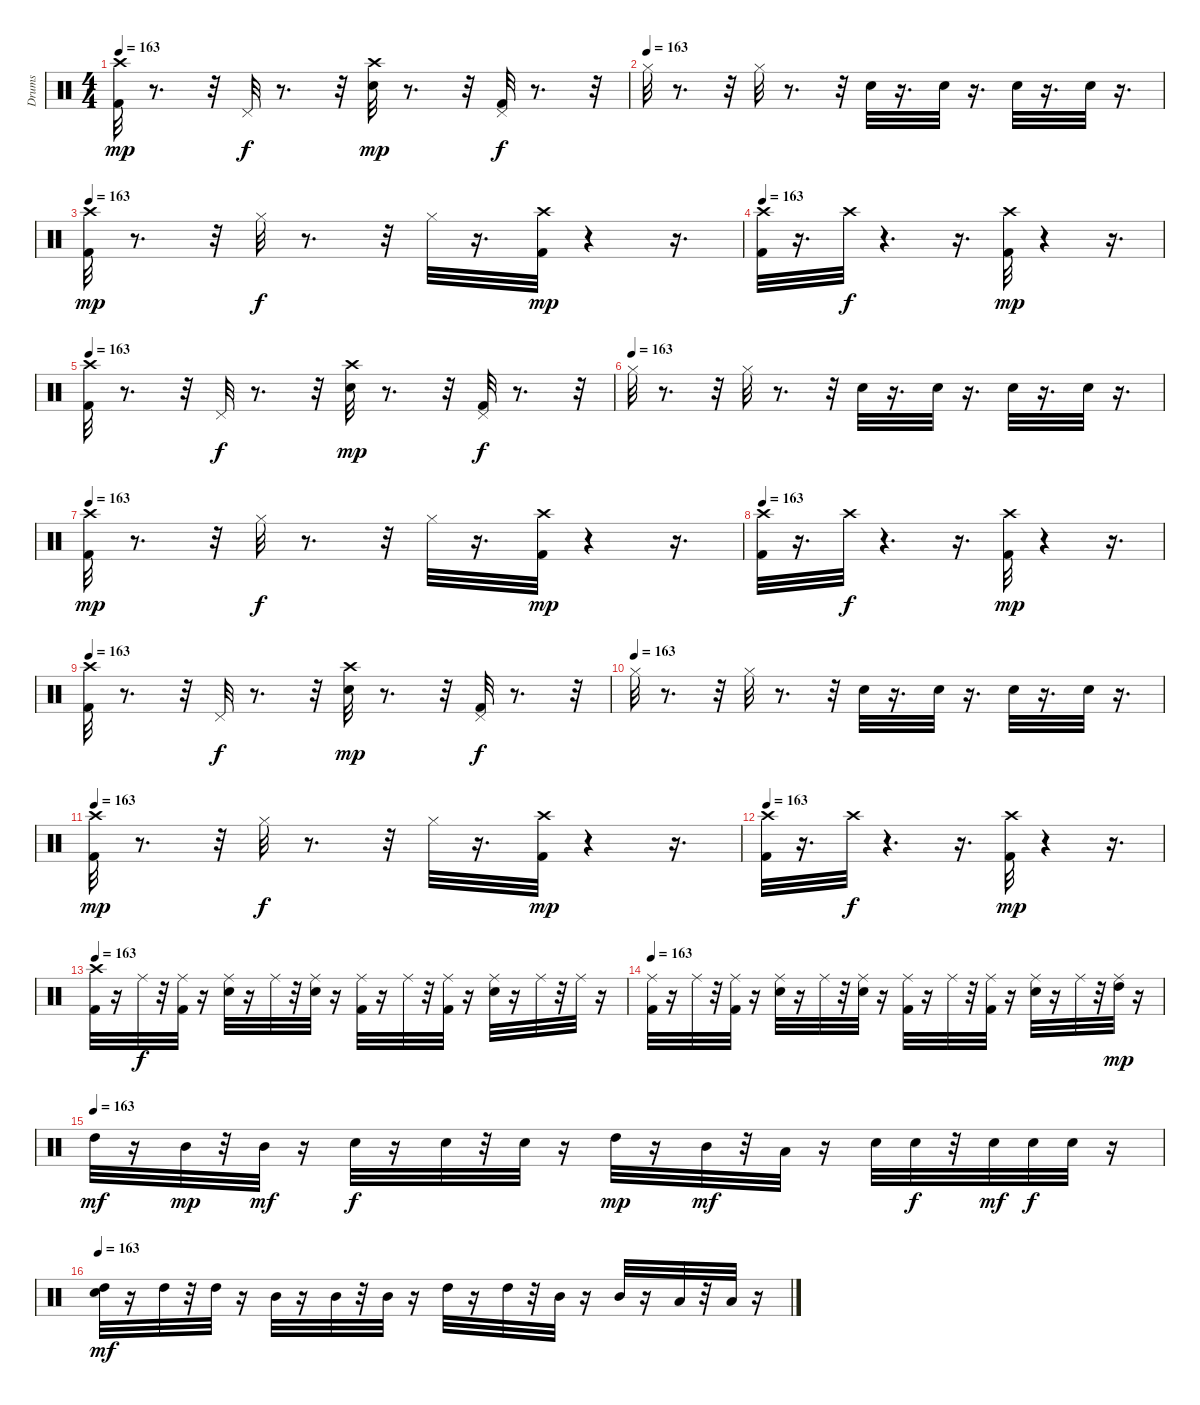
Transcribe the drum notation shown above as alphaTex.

\track ("Drums" "Drums") {instrument percussion}
\staff {score}
\articulation defaults
\ts (4 4)
\tempo 163
\clef neutral
\ks c
("Kick (hit) 2" "Crash high (hit)").32{dy mp} r.8{d} r.32 "Pedal Hi-Hat (hit)".32{dy f} r.8{d} r.32 ("Snare (hit) 2" "Crash high (hit)").32{dy mp} r.8{d} r.32 ("Kick (hit) 2" "Pedal Hi-Hat (hit)").32{dy f} r.8{d} r.32 |
\tempo (163)
"Hi-Hat (closed)".32 r.8{d} r.32 "Hi-Hat (closed)".32 r.8{d} r.32 "Snare (hit) 2".32 r.16{d} "Snare (hit) 2".32 r.16{d} "Snare (hit) 2".32 r.16{d} "Snare (hit) 2".32 r.16{d} |
\tempo 163
("Kick (hit) 2" "Crash high (hit)").32{dy mp} r.8{d} r.32 "Hi-Hat (closed)".32{dy f} r.8{d} r.32 "Hi-Hat (closed)".32 r.16{d} ("Kick (hit) 2" "Crash high (hit)").32{dy mp} r.4 r.16{d} |
\tempo 163
("Kick (hit) 2" "Crash high (hit)").32 r.16{d} "Crash high (hit)".32{dy f} r.4{d} r.16{d} ("Kick (hit) 2" "Crash high (hit)").32{dy mp} r.4 r.16{d} |
\tempo 163
("Kick (hit) 2" "Crash high (hit)").32 r.8{d} r.32 "Pedal Hi-Hat (hit)".32{dy f} r.8{d} r.32 ("Snare (hit) 2" "Crash high (hit)").32{dy mp} r.8{d} r.32 ("Kick (hit) 2" "Pedal Hi-Hat (hit)").32{dy f} r.8{d} r.32 |
\tempo (163)
"Hi-Hat (closed)".32 r.8{d} r.32 "Hi-Hat (closed)".32 r.8{d} r.32 "Snare (hit) 2".32 r.16{d} "Snare (hit) 2".32 r.16{d} "Snare (hit) 2".32 r.16{d} "Snare (hit) 2".32 r.16{d} |
\tempo 163
("Kick (hit) 2" "Crash high (hit)").32{dy mp} r.8{d} r.32 "Hi-Hat (closed)".32{dy f} r.8{d} r.32 "Hi-Hat (closed)".32 r.16{d} ("Kick (hit) 2" "Crash high (hit)").32{dy mp} r.4 r.16{d} |
\tempo 163
("Kick (hit) 2" "Crash high (hit)").32 r.16{d} "Crash high (hit)".32{dy f} r.4{d} r.16{d} ("Kick (hit) 2" "Crash high (hit)").32{dy mp} r.4 r.16{d} |
\tempo 163
("Kick (hit) 2" "Crash high (hit)").32 r.8{d} r.32 "Pedal Hi-Hat (hit)".32{dy f} r.8{d} r.32 ("Snare (hit) 2" "Crash high (hit)").32{dy mp} r.8{d} r.32 ("Kick (hit) 2" "Pedal Hi-Hat (hit)").32{dy f} r.8{d} r.32 |
\tempo (163)
"Hi-Hat (closed)".32 r.8{d} r.32 "Hi-Hat (closed)".32 r.8{d} r.32 "Snare (hit) 2".32 r.16{d} "Snare (hit) 2".32 r.16{d} "Snare (hit) 2".32 r.16{d} "Snare (hit) 2".32 r.16{d} |
\tempo 163
("Kick (hit) 2" "Crash high (hit)").32{dy mp} r.8{d} r.32 "Hi-Hat (closed)".32{dy f} r.8{d} r.32 "Hi-Hat (closed)".32 r.16{d} ("Kick (hit) 2" "Crash high (hit)").32{dy mp} r.4 r.16{d} |
\tempo 163
("Kick (hit) 2" "Crash high (hit)").32 r.16{d} "Crash high (hit)".32{dy f} r.4{d} r.16{d} ("Kick (hit) 2" "Crash high (hit)").32{dy mp} r.4 r.16{d} |
\tempo 163
("Kick (hit) 2" "Crash high (hit)").32 r.16 "Ride (middle)".32{dy f} r.32 ("Kick (hit) 2" "Ride (middle)").32 r.16 ("Snare (hit) 2" "Ride (middle)").32 r.16 "Ride (middle)".32 r.32 ("Snare (hit) 2" "Ride (middle)").32 r.16 ("Kick (hit) 2" "Ride (middle)").32 r.16 "Ride (middle)".32 r.32 ("Kick (hit) 2" "Ride (middle)").32 r.16 ("Snare (hit) 2" "Ride (middle)").32 r.16 "Ride (middle)".32 r.32 "Ride (middle)".32 r.16 |
\tempo 163
("Kick (hit) 2" "Ride (middle)").32 r.16 "Ride (middle)".32 r.32 ("Kick (hit) 2" "Ride (middle)").32 r.16 ("Snare (hit) 2" "Ride (middle)").32 r.16 "Ride (middle)".32 r.32 ("Snare (hit) 2" "Ride (middle)").32 r.16 ("Kick (hit) 2" "Ride (middle)").32 r.16 "Ride (middle)".32 r.32 ("Kick (hit) 2" "Ride (middle)").32 r.16 ("Snare (hit) 2" "Ride (middle)").32 r.16 "Ride (middle)".32 r.32 ("High Tom (hit)" "Ride (middle)").32{dy mp} r.16 |
\tempo (163)
"High Tom (hit)".32{dy mf} r.16 "Mid Tom (hit)".32{dy mp} r.32 "Mid Tom (hit)".32{dy mf} r.16 "Snare (hit) 2".32{dy f} r.16 "Snare (hit) 2".32 r.32 "Snare (hit) 2".32 r.16 "High Tom (hit)".32{dy mp} r.16 "Mid Tom (hit)".32{dy mf} r.32 "Low Tom (hit)".32 r.16 "Snare (hit) 2".32 "Snare (hit) 2".32{dy f} r.32 "Snare (hit) 2".32{dy mf} "Snare (hit) 2".32{dy f} "Snare (hit) 2".32 r.16 |
\tempo 163
("Snare (hit) 2" "High Tom (hit)").32{dy mf} r.16 "High Tom (hit)".32 r.32 "High Tom (hit)".32 r.16 "Mid Tom (hit)".32 r.16 "Mid Tom (hit)".32 r.32 "Mid Tom (hit)".32 r.16 "High Tom (hit)".32 r.16 "High Tom (hit)".32 r.32 "Mid Tom (hit)".32 r.16 "Mid Tom (hit)".32 r.16 "Low Tom (hit)".32 r.32 "Low Tom (hit)".32 r.16
